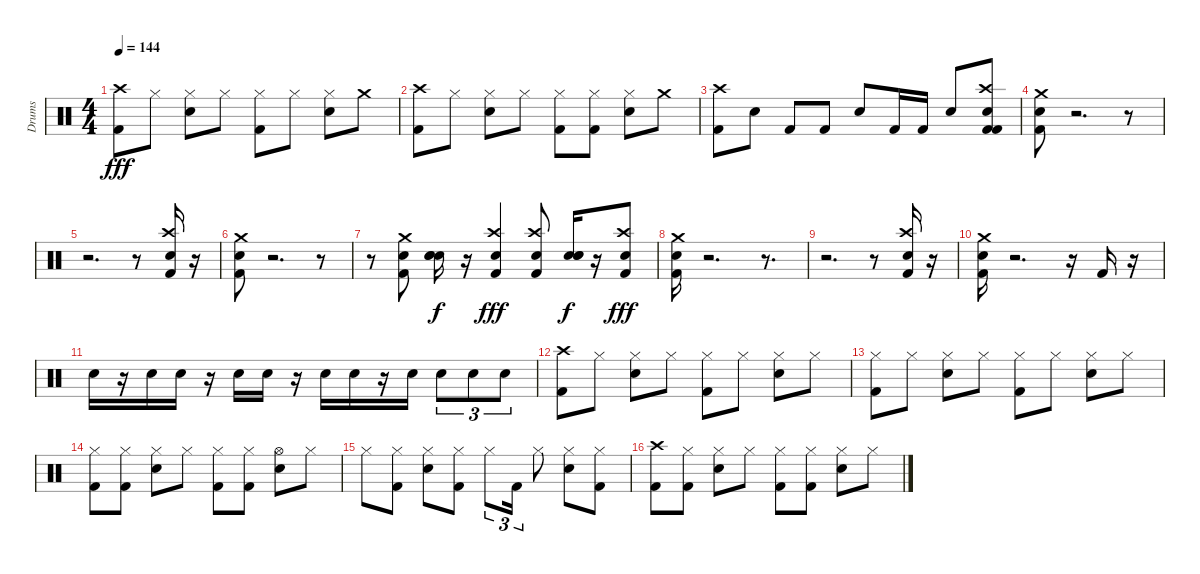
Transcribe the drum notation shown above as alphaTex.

\track ("Drums" "Drums") {instrument percussion}
\staff {score}
\articulation defaults
\ts (4 4)
\tempo 144
\clef neutral
\ks c
("Kick (hit) 2" "Crash high (hit)").8{dy fff} "Hi-Hat (closed)".8 ("Hi-Hat (closed)" "Snare (hit) 2").8 "Hi-Hat (closed)".8 ("Kick (hit) 2" "Hi-Hat (closed)").8 "Hi-Hat (closed)".8 ("Snare (hit) 2" "Hi-Hat (closed)").8 "Crash medium (hit)".8 |
("Kick (hit) 2" "Crash high (hit)").8 "Hi-Hat (closed)".8 ("Hi-Hat (closed)" "Snare (hit) 2").8 "Hi-Hat (closed)".8 ("Hi-Hat (closed)" "Kick (hit) 2").8 ("Hi-Hat (closed)" "Kick (hit) 2").8 ("Hi-Hat (closed)" "Snare (hit) 2").8 "Crash medium (hit)".8 |
("Crash high (hit)" "Kick (hit) 2").8 "Snare (hit) 2".8 "Kick (hit) 2".8 "Kick (hit) 2".8 "Snare (hit) 2".8 "Kick (hit) 2".16 "Kick (hit) 2".16 "Snare (hit) 2".8 ("Crash high (hit)" "Snare (hit) 2" "Kick (hit) 2" "Kick (hit) 2").8 |
("Kick (hit) 2" "Snare (hit) 2" "Crash medium (hit)").8 r.2{d} r.8 |
r.2{d} r.8 ("Kick (hit) 2" "Snare (hit) 2" "Crash high (hit)").16 r.16 |
("Kick (hit) 2" "Snare (hit) 2" "Crash medium (hit)").8 r.2{d} r.8 |
r.8 ("Kick (hit) 2" "Snare (hit) 2" "Crash medium (hit)").8 ("Snare (hit)" "Snare (hit)" "Snare (hit)").16{dy f} r.16 ("Kick (hit) 2" "Snare (hit) 2" "Crash high (hit)").4{dy fff} ("Kick (hit) 2" "Snare (hit) 2" "Crash high (hit)").8 ("Snare (hit)" "Snare (hit)" "Snare (hit)").16{dy f} r.16 ("Kick (hit) 2" "Snare (hit) 2" "Crash high (hit)").8{dy fff} |
("Kick (hit) 2" "Snare (hit) 2" "Crash medium (hit)").16 r.2{d} r.8{d} |
r.2{d} r.8 ("Kick (hit) 2" "Snare (hit) 2" "Crash high (hit)").16 r.16 |
("Kick (hit) 2" "Snare (hit) 2" "Crash medium (hit)").16 r.2{d} r.16 "Kick (hit) 2".16 r.16 |
"Snare (hit) 2".16 r.16 "Snare (hit) 2".16 "Snare (hit) 2".16 r.16 "Snare (hit) 2".16 "Snare (hit) 2".16 r.16 "Snare (hit) 2".16 "Snare (hit) 2".16 r.16 "Snare (hit) 2".16 "Snare (hit) 2".8{tu (3 2)} "Snare (hit) 2".8{tu (3 2)} "Snare (hit) 2".8{tu (3 2)} |
("Crash high (hit)" "Kick (hit) 2").8 "Hi-Hat (closed)".8 ("Snare (hit) 2" "Hi-Hat (closed)").8 "Hi-Hat (closed)".8 ("Kick (hit) 2" "Hi-Hat (closed)").8 "Hi-Hat (closed)".8 ("Snare (hit) 2" "Hi-Hat (closed)").8 "Hi-Hat (closed)".8 |
("Kick (hit) 2" "Hi-Hat (closed)").8 "Hi-Hat (closed)".8 ("Snare (hit) 2" "Hi-Hat (closed)").8 "Hi-Hat (closed)".8 ("Kick (hit) 2" "Hi-Hat (closed)").8 "Hi-Hat (closed)".8 ("Snare (hit) 2" "Hi-Hat (closed)").8 "Hi-Hat (closed)".8 |
("Kick (hit) 2" "Hi-Hat (closed)").8 ("Kick (hit) 2" "Hi-Hat (closed)").8 ("Snare (hit) 2" "Hi-Hat (closed)").8 "Hi-Hat (closed)".8 ("Kick (hit) 2" "Hi-Hat (closed)").8 ("Kick (hit) 2" "Hi-Hat (closed)").8 ("Snare (hit) 2" "Hi-Hat (open)").8 "Hi-Hat (closed)".8 |
"Hi-Hat (closed)".8 ("Kick (hit) 2" "Hi-Hat (closed)").8 ("Snare (hit) 2" "Hi-Hat (closed)").8 ("Hi-Hat (closed)" "Kick (hit) 2").8 "Hi-Hat (closed)".8{tu (3 2)} "Kick (hit) 2".16{tu (3 2)} "Hi-Hat (closed)".8 ("Snare (hit) 2" "Hi-Hat (closed)").8 ("Hi-Hat (closed)" "Kick (hit) 2").8 |
("Kick (hit) 2" "Crash high (hit)").8 ("Kick (hit) 2" "Hi-Hat (closed)").8 ("Snare (hit) 2" "Hi-Hat (closed)").8 "Hi-Hat (closed)".8 ("Kick (hit) 2" "Hi-Hat (closed)").8 ("Kick (hit) 2" "Hi-Hat (closed)").8 ("Snare (hit) 2" "Hi-Hat (closed)").8 "Hi-Hat (closed)".8
